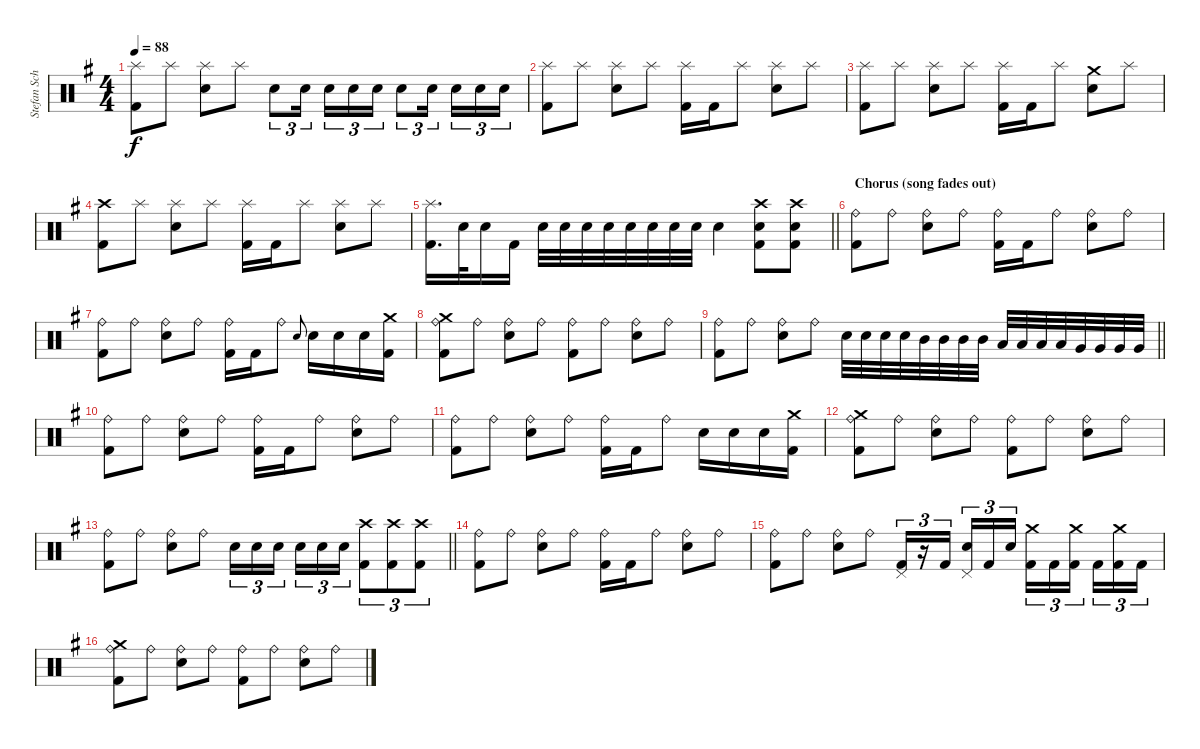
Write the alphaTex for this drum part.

\track ("Stefan Schwarzmann" "Stefan Sch") {instrument percussion}
\staff {score}
\articulation defaults
\ts (4 4)
\tempo 88
\clef neutral
\ks eminor
("Splash (hit)" "Kick (hit) 2").8{dy f} "Splash (hit)".8 ("Splash (hit)" "Snare (hit) 2").8 "Splash (hit)".8 "Snare (hit) 2".8{tu (3 2)} "Snare (hit) 2".16{tu (3 2) beam splitsecondary} "Snare (hit) 2".16{tu (3 2)} "Snare (hit) 2".16{tu (3 2)} "Snare (hit) 2".16{tu (3 2)} "Snare (hit) 2".8{tu (3 2)} "Snare (hit) 2".16{tu (3 2) beam splitsecondary} "Snare (hit) 2".16{tu (3 2)} "Snare (hit) 2".16{tu (3 2)} "Snare (hit) 2".16{tu (3 2)} |
("Splash (hit)" "Kick (hit) 2").8 "Splash (hit)".8 ("Splash (hit)" "Snare (hit) 2").8 "Splash (hit)".8 ("Splash (hit)" "Kick (hit) 2").16 "Kick (hit) 2".16 "Splash (hit)".8 ("Splash (hit)" "Snare (hit) 2").8 "Splash (hit)".8 |
("Splash (hit)" "Kick (hit) 2").8 "Splash (hit)".8 ("Splash (hit)" "Snare (hit) 2").8 "Splash (hit)".8 ("Splash (hit)" "Kick (hit) 2").16 "Kick (hit) 2".16 "Splash (hit)".8 ("Crash medium (hit)" "Snare (hit) 2").8 "Splash (hit)".8 |
("Crash high (hit)" "Kick (hit) 2").8 "Splash (hit)".8 ("Splash (hit)" "Snare (hit) 2").8 "Splash (hit)".8 ("Splash (hit)" "Kick (hit) 2").16 "Kick (hit) 2".16 "Splash (hit)".8 ("Splash (hit)" "Snare (hit) 2").8 "Splash (hit)".8 |
\barLineRight lightlight
("Splash (hit)" "Kick (hit) 2").16{d} "Snare (hit) 2".32 "Snare (hit) 2".16 "Kick (hit) 2".16 "Snare (hit) 2".32 "Snare (hit) 2".32 "Snare (hit) 2".32 "Snare (hit) 2".32 "Snare (hit) 2".32 "Snare (hit) 2".32 "Snare (hit) 2".32 "Snare (hit) 2".32 "Snare (hit) 2".4 ("Crash high (hit)" "Snare (hit) 2" "Kick (hit) 2").8 ("Crash high (hit)" "Snare (hit) 2" "Kick (hit) 2").8 |
\section ("" " Chorus (song fades out)")
("Ride (bell)" "Kick (hit) 2").8{volume 12} "Ride (bell)".8 ("Ride (bell)" "Snare (hit) 2").8 "Ride (bell)".8 ("Ride (bell)" "Kick (hit) 2").16 "Kick (hit) 2".16 "Ride (bell)".8 ("Ride (bell)" "Snare (hit) 2").8 "Ride (bell)".8 |
("Ride (bell)" "Kick (hit) 2").8 "Ride (bell)".8 ("Ride (bell)" "Snare (hit) 2").8 "Ride (bell)".8 ("Ride (bell)" "Kick (hit) 2").16 "Kick (hit) 2".16 "Ride (bell)".8 "Snare (hit) 2".8{gr onbeat} "Snare (hit) 2".16 "Snare (hit) 2".16 "Snare (hit) 2".16 ("Crash medium (hit)" "Kick (hit) 2").16 |
("Crash medium (hit)" "Ride (bell)" "Kick (hit) 2").8 "Ride (bell)".8 ("Ride (bell)" "Snare (hit) 2").8 "Ride (bell)".8 ("Ride (bell)" "Kick (hit) 2").8 "Ride (bell)".8 ("Ride (bell)" "Snare (hit) 2").8 "Ride (bell)".8 |
\barLineRight lightlight
("Ride (bell)" "Kick (hit) 2").8 "Ride (bell)".8 ("Ride (bell)" "Snare (hit) 2").8 "Ride (bell)".8 "Snare (hit) 2".32 "Snare (hit) 2".32 "Snare (hit) 2".32 "Snare (hit) 2".32 "Mid Tom (hit)".32 "Mid Tom (hit)".32 "Mid Tom (hit)".32 "Mid Tom (hit)".32 "Low Tom (hit)".32 "Low Tom (hit)".32 "Low Tom (hit)".32 "Low Tom (hit)".32 "Very Low Tom (hit)".32 "Very Low Tom (hit)".32 "Very Low Tom (hit)".32 "Very Low Tom (hit)".32 |
("Ride (bell)" "Kick (hit) 2").8{volume 8} "Ride (bell)".8 ("Ride (bell)" "Snare (hit) 2").8 "Ride (bell)".8 ("Ride (bell)" "Kick (hit) 2").16 "Kick (hit) 2".16 "Ride (bell)".8 ("Ride (bell)" "Snare (hit) 2").8 "Ride (bell)".8 |
("Ride (bell)" "Kick (hit) 2").8 "Ride (bell)".8 ("Ride (bell)" "Snare (hit) 2").8 "Ride (bell)".8 ("Ride (bell)" "Kick (hit) 2").16 "Kick (hit) 2".16 "Ride (bell)".8 "Snare (hit) 2".16 "Snare (hit) 2".16 "Snare (hit) 2".16 ("Crash medium (hit)" "Kick (hit) 2").16 |
("Crash medium (hit)" "Ride (bell)" "Kick (hit) 2").8 "Ride (bell)".8 ("Ride (bell)" "Snare (hit) 2").8 "Ride (bell)".8 ("Ride (bell)" "Kick (hit) 2").8 "Ride (bell)".8 ("Ride (bell)" "Snare (hit) 2").8 "Ride (bell)".8 |
\barLineRight lightlight
("Ride (bell)" "Kick (hit) 2").8 "Ride (bell)".8 ("Ride (bell)" "Snare (hit) 2").8 "Ride (bell)".8 "Snare (hit) 2".16{tu (3 2)} "Snare (hit) 2".16{tu (3 2)} "Snare (hit) 2".16{tu (3 2) beam splitsecondary} "Snare (hit) 2".16{tu (3 2)} "Snare (hit) 2".16{tu (3 2)} "Snare (hit) 2".16{tu (3 2)} ("Crash high (hit)" "Kick (hit) 2").8{tu (3 2)} ("Crash high (hit)" "Kick (hit) 2").8{tu (3 2)} ("Crash high (hit)" "Kick (hit) 2").8{tu (3 2)} |
("Ride (bell)" "Kick (hit) 2").8{volume 0} "Ride (bell)".8 ("Ride (bell)" "Snare (hit) 2").8 "Ride (bell)".8 ("Ride (bell)" "Kick (hit) 2").16 "Kick (hit) 2".16 "Ride (bell)".8 ("Ride (bell)" "Snare (hit) 2").8 "Ride (bell)".8 |
("Ride (bell)" "Kick (hit) 2").8 "Ride (bell)".8 ("Ride (bell)" "Snare (hit) 2").8 "Ride (bell)".8 ("Pedal Hi-Hat (hit)" "Kick (hit) 2").16{tu (3 2)} r.16{tu (3 2)} "Kick (hit) 2".16{tu (3 2) beam splitsecondary} ("Pedal Hi-Hat (hit)" "Snare (hit) 2").16{tu (3 2)} "Kick (hit) 2".16{tu (3 2)} "Snare (hit) 2".16{tu (3 2)} ("Crash medium (hit)" "Kick (hit) 2").16{tu (3 2)} "Kick (hit) 2".16{tu (3 2)} ("Crash medium (hit)" "Kick (hit) 2").16{tu (3 2) beam splitsecondary} "Kick (hit) 2".16{tu (3 2)} ("Crash medium (hit)" "Kick (hit) 2").16{tu (3 2)} "Kick (hit) 2".16{tu (3 2)} |
("Crash medium (hit)" "Ride (bell)" "Kick (hit) 2").8 "Ride (bell)".8 ("Ride (bell)" "Snare (hit) 2").8 "Ride (bell)".8 ("Ride (bell)" "Kick (hit) 2").8 "Ride (bell)".8 ("Ride (bell)" "Snare (hit) 2").8 "Ride (bell)".8
